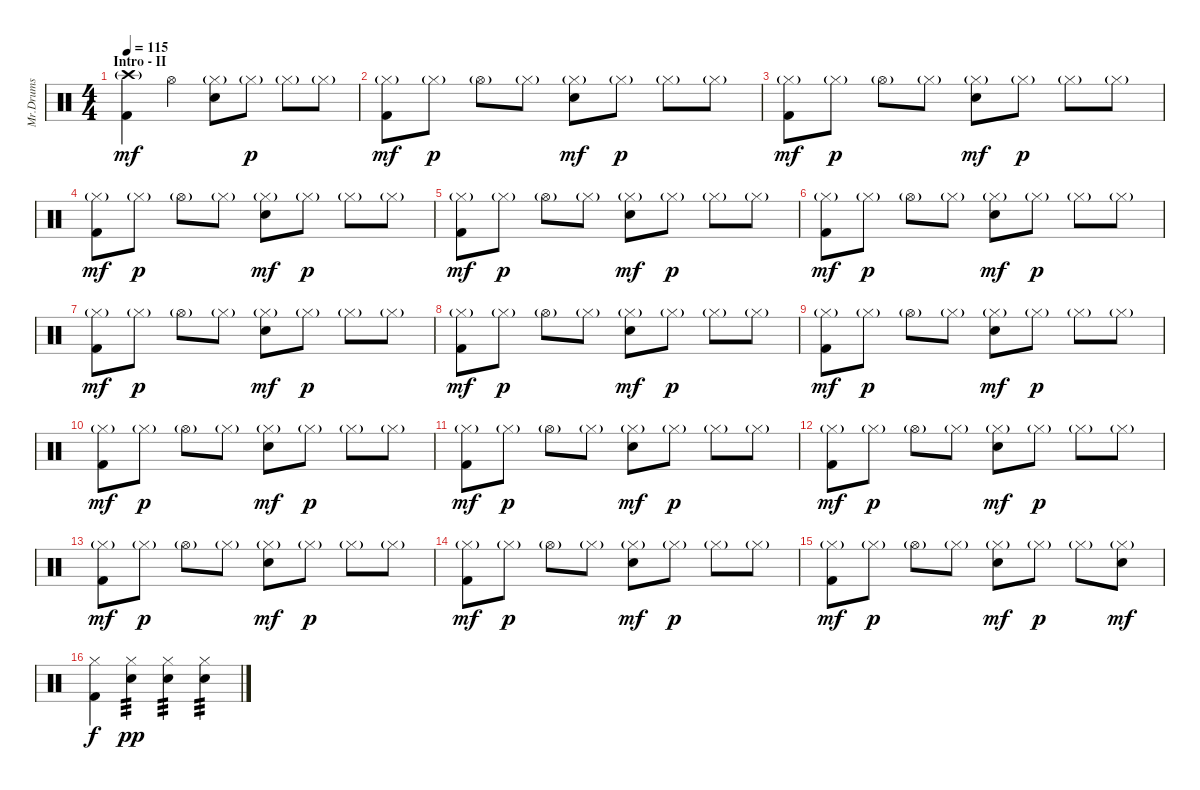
\track ("Mr.Drums" "Mr.Drums") {instrument percussion}
\staff {score}
\articulation defaults
\ts (4 4)
\section ("" "Intro - II")
\tempo 115
\clef neutral
\ks c
("Crash high (hit)"{g} "Kick (hit) 2").4{dy mf} "Hi-Hat (open)".4 ("Hi-Hat (closed)"{g} "Electric Snare (hit)").8 "Hi-Hat (closed)"{g}.8{dy p} "Hi-Hat (closed)"{g}.8 "Hi-Hat (closed)"{g}.8 |
("Hi-Hat (closed)"{g} "Kick (hit) 2").8{dy mf} "Hi-Hat (closed)"{g}.8{dy p} "Hi-Hat (open)"{g}.8 "Hi-Hat (closed)"{g}.8 ("Hi-Hat (closed)"{g} "Electric Snare (hit)").8{dy mf} "Hi-Hat (closed)"{g}.8{dy p} "Hi-Hat (closed)"{g}.8 "Hi-Hat (closed)"{g}.8 |
("Hi-Hat (closed)"{g} "Kick (hit) 2").8{dy mf} "Hi-Hat (closed)"{g}.8{dy p} "Hi-Hat (open)"{g}.8 "Hi-Hat (closed)"{g}.8 ("Hi-Hat (closed)"{g} "Electric Snare (hit)").8{dy mf} "Hi-Hat (closed)"{g}.8{dy p} "Hi-Hat (closed)"{g}.8 "Hi-Hat (closed)"{g}.8 |
("Hi-Hat (closed)"{g} "Kick (hit) 2").8{dy mf} "Hi-Hat (closed)"{g}.8{dy p} "Hi-Hat (open)"{g}.8 "Hi-Hat (closed)"{g}.8 ("Hi-Hat (closed)"{g} "Electric Snare (hit)").8{dy mf} "Hi-Hat (closed)"{g}.8{dy p} "Hi-Hat (closed)"{g}.8 "Hi-Hat (closed)"{g}.8 |
("Hi-Hat (closed)"{g} "Kick (hit) 2").8{dy mf} "Hi-Hat (closed)"{g}.8{dy p} "Hi-Hat (open)"{g}.8 "Hi-Hat (closed)"{g}.8 ("Hi-Hat (closed)"{g} "Electric Snare (hit)").8{dy mf} "Hi-Hat (closed)"{g}.8{dy p} "Hi-Hat (closed)"{g}.8 "Hi-Hat (closed)"{g}.8 |
("Hi-Hat (closed)"{g} "Kick (hit) 2").8{dy mf} "Hi-Hat (closed)"{g}.8{dy p} "Hi-Hat (open)"{g}.8 "Hi-Hat (closed)"{g}.8 ("Hi-Hat (closed)"{g} "Electric Snare (hit)").8{dy mf} "Hi-Hat (closed)"{g}.8{dy p} "Hi-Hat (closed)"{g}.8 "Hi-Hat (closed)"{g}.8 |
("Hi-Hat (closed)"{g} "Kick (hit) 2").8{dy mf} "Hi-Hat (closed)"{g}.8{dy p} "Hi-Hat (open)"{g}.8 "Hi-Hat (closed)"{g}.8 ("Hi-Hat (closed)"{g} "Electric Snare (hit)").8{dy mf} "Hi-Hat (closed)"{g}.8{dy p} "Hi-Hat (closed)"{g}.8 "Hi-Hat (closed)"{g}.8 |
("Hi-Hat (closed)"{g} "Kick (hit) 2").8{dy mf} "Hi-Hat (closed)"{g}.8{dy p} "Hi-Hat (open)"{g}.8 "Hi-Hat (closed)"{g}.8 ("Hi-Hat (closed)"{g} "Electric Snare (hit)").8{dy mf} "Hi-Hat (closed)"{g}.8{dy p} "Hi-Hat (closed)"{g}.8 "Hi-Hat (closed)"{g}.8 |
("Hi-Hat (closed)"{g} "Kick (hit) 2").8{dy mf} "Hi-Hat (closed)"{g}.8{dy p} "Hi-Hat (open)"{g}.8 "Hi-Hat (closed)"{g}.8 ("Hi-Hat (closed)"{g} "Electric Snare (hit)").8{dy mf} "Hi-Hat (closed)"{g}.8{dy p} "Hi-Hat (closed)"{g}.8 "Hi-Hat (closed)"{g}.8 |
("Hi-Hat (closed)"{g} "Kick (hit) 2").8{dy mf} "Hi-Hat (closed)"{g}.8{dy p} "Hi-Hat (open)"{g}.8 "Hi-Hat (closed)"{g}.8 ("Hi-Hat (closed)"{g} "Electric Snare (hit)").8{dy mf} "Hi-Hat (closed)"{g}.8{dy p} "Hi-Hat (closed)"{g}.8 "Hi-Hat (closed)"{g}.8 |
("Hi-Hat (closed)"{g} "Kick (hit) 2").8{dy mf} "Hi-Hat (closed)"{g}.8{dy p} "Hi-Hat (open)"{g}.8 "Hi-Hat (closed)"{g}.8 ("Hi-Hat (closed)"{g} "Electric Snare (hit)").8{dy mf} "Hi-Hat (closed)"{g}.8{dy p} "Hi-Hat (closed)"{g}.8 "Hi-Hat (closed)"{g}.8 |
("Hi-Hat (closed)"{g} "Kick (hit) 2").8{dy mf} "Hi-Hat (closed)"{g}.8{dy p} "Hi-Hat (open)"{g}.8 "Hi-Hat (closed)"{g}.8 ("Hi-Hat (closed)"{g} "Electric Snare (hit)").8{dy mf} "Hi-Hat (closed)"{g}.8{dy p} "Hi-Hat (closed)"{g}.8 "Hi-Hat (closed)"{g}.8 |
("Hi-Hat (closed)"{g} "Kick (hit) 2").8{dy mf} "Hi-Hat (closed)"{g}.8{dy p} "Hi-Hat (open)"{g}.8 "Hi-Hat (closed)"{g}.8 ("Hi-Hat (closed)"{g} "Electric Snare (hit)").8{dy mf} "Hi-Hat (closed)"{g}.8{dy p} "Hi-Hat (closed)"{g}.8 "Hi-Hat (closed)"{g}.8 |
("Hi-Hat (closed)"{g} "Kick (hit) 2").8{dy mf} "Hi-Hat (closed)"{g}.8{dy p} "Hi-Hat (open)"{g}.8 "Hi-Hat (closed)"{g}.8 ("Hi-Hat (closed)"{g} "Electric Snare (hit)").8{dy mf} "Hi-Hat (closed)"{g}.8{dy p} "Hi-Hat (closed)"{g}.8 "Hi-Hat (closed)"{g}.8 |
("Hi-Hat (closed)"{g} "Kick (hit) 2").8{dy mf} "Hi-Hat (closed)"{g}.8{dy p} "Hi-Hat (open)"{g}.8 "Hi-Hat (closed)"{g}.8 ("Hi-Hat (closed)"{g} "Electric Snare (hit)").8{dy mf} "Hi-Hat (closed)"{g}.8{dy p} "Hi-Hat (closed)"{g}.8 ("Hi-Hat (closed)"{g} "Electric Snare (hit)").8{dy mf} |
("Hi-Hat (closed)" "Kick (hit) 2").4{dy f} ("Hi-Hat (closed)" "Electric Snare (hit)").4{tp 3 dy pp} ("Hi-Hat (closed)" "Electric Snare (hit)").4{tp 3} ("Hi-Hat (closed)" "Electric Snare (hit)").4{tp 3}
